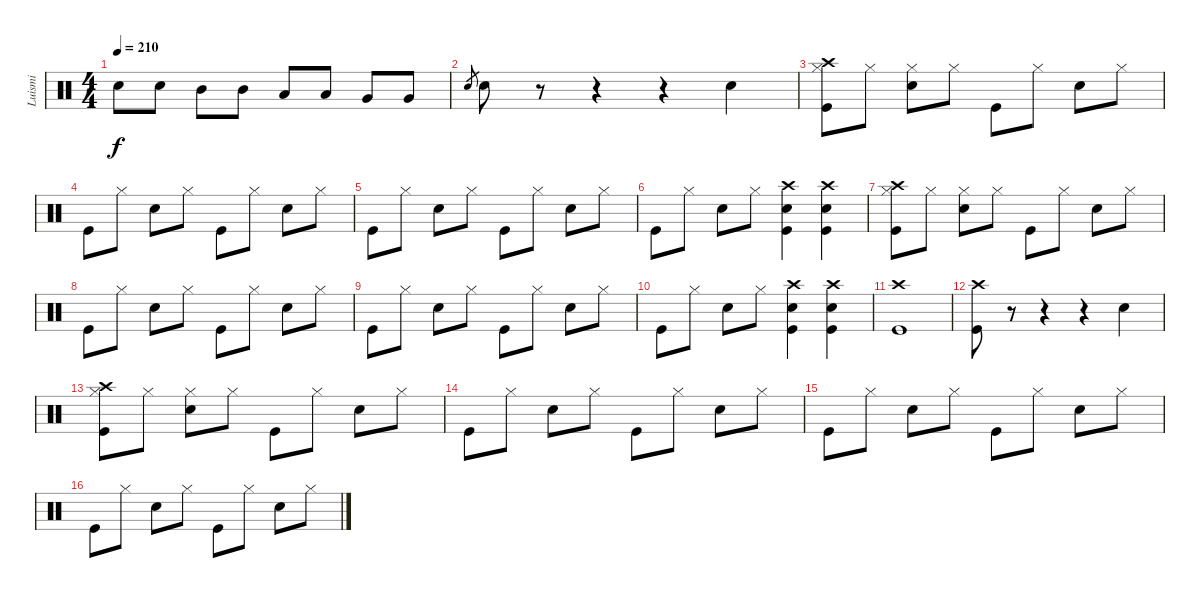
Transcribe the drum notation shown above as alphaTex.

\track ("Luismi" "Luismi") {instrument percussion}
\staff {score}
\articulation defaults
\ts (4 4)
\tempo 210
\clef neutral
\ks c "Snare (hit) 2".8{dy f} "Snare (hit) 2".8 "Mid Tom (hit)".8 "Mid Tom (hit)".8 "Low Tom (hit)".8 "Low Tom (hit)".8 "Very Low Tom (hit)".8 "Very Low Tom (hit)".8
|
"Snare (hit) 2".8{gr} "Snare (hit) 2".8 r.8 r.4 r.4 "Snare (hit) 2".4 |
("Kick (hit)" "Crash high (hit)" "Hi-Hat (closed)").8 "Hi-Hat (closed)".8 ("Snare (hit) 2" "Hi-Hat (closed)").8 "Hi-Hat (closed)".8 "Kick (hit)".8 "Hi-Hat (closed)".8 "Snare (hit) 2".8 "Hi-Hat (closed)".8 |
"Kick (hit)".8 "Hi-Hat (closed)".8 "Snare (hit) 2".8 "Hi-Hat (closed)".8 "Kick (hit)".8 "Hi-Hat (closed)".8 "Snare (hit) 2".8 "Hi-Hat (closed)".8 |
"Kick (hit)".8 "Hi-Hat (closed)".8 "Snare (hit) 2".8 "Hi-Hat (closed)".8 "Kick (hit)".8 "Hi-Hat (closed)".8 "Snare (hit) 2".8 "Hi-Hat (closed)".8 |
"Kick (hit)".8 "Hi-Hat (closed)".8 "Snare (hit) 2".8 "Hi-Hat (closed)".8 ("Snare (hit) 2" "Kick (hit)" "Crash high (hit)").4 ("Snare (hit) 2" "Kick (hit)" "Crash high (hit)").4 |
("Kick (hit)" "Crash high (hit)" "Hi-Hat (closed)").8 "Hi-Hat (closed)".8 ("Snare (hit) 2" "Hi-Hat (closed)").8 "Hi-Hat (closed)".8 "Kick (hit)".8 "Hi-Hat (closed)".8 "Snare (hit) 2".8 "Hi-Hat (closed)".8 |
"Kick (hit)".8 "Hi-Hat (closed)".8 "Snare (hit) 2".8 "Hi-Hat (closed)".8 "Kick (hit)".8 "Hi-Hat (closed)".8 "Snare (hit) 2".8 "Hi-Hat (closed)".8 |
"Kick (hit)".8 "Hi-Hat (closed)".8 "Snare (hit) 2".8 "Hi-Hat (closed)".8 "Kick (hit)".8 "Hi-Hat (closed)".8 "Snare (hit) 2".8 "Hi-Hat (closed)".8 |
"Kick (hit)".8 "Hi-Hat (closed)".8 "Snare (hit) 2".8 "Hi-Hat (closed)".8 ("Snare (hit) 2" "Kick (hit)" "Crash high (hit)").4 ("Snare (hit) 2" "Kick (hit)" "Crash high (hit)").4 |
("Crash high (hit)" "Kick (hit)").1 |
("Kick (hit)" "Crash high (hit)").8 r.8 r.4 r.4 "Snare (hit) 2".4 |
("Kick (hit)" "Crash high (hit)" "Hi-Hat (closed)").8 "Hi-Hat (closed)".8 ("Snare (hit) 2" "Hi-Hat (closed)").8 "Hi-Hat (closed)".8 "Kick (hit)".8 "Hi-Hat (closed)".8 "Snare (hit) 2".8 "Hi-Hat (closed)".8 |
"Kick (hit)".8 "Hi-Hat (closed)".8 "Snare (hit) 2".8 "Hi-Hat (closed)".8 "Kick (hit)".8 "Hi-Hat (closed)".8 "Snare (hit) 2".8 "Hi-Hat (closed)".8 |
"Kick (hit)".8 "Hi-Hat (closed)".8 "Snare (hit) 2".8 "Hi-Hat (closed)".8 "Kick (hit)".8 "Hi-Hat (closed)".8 "Snare (hit) 2".8 "Hi-Hat (closed)".8 |
"Kick (hit)".8 "Hi-Hat (closed)".8 "Snare (hit) 2".8 "Hi-Hat (closed)".8 "Kick (hit)".8 "Hi-Hat (closed)".8 "Snare (hit) 2".8 "Hi-Hat (closed)".8
